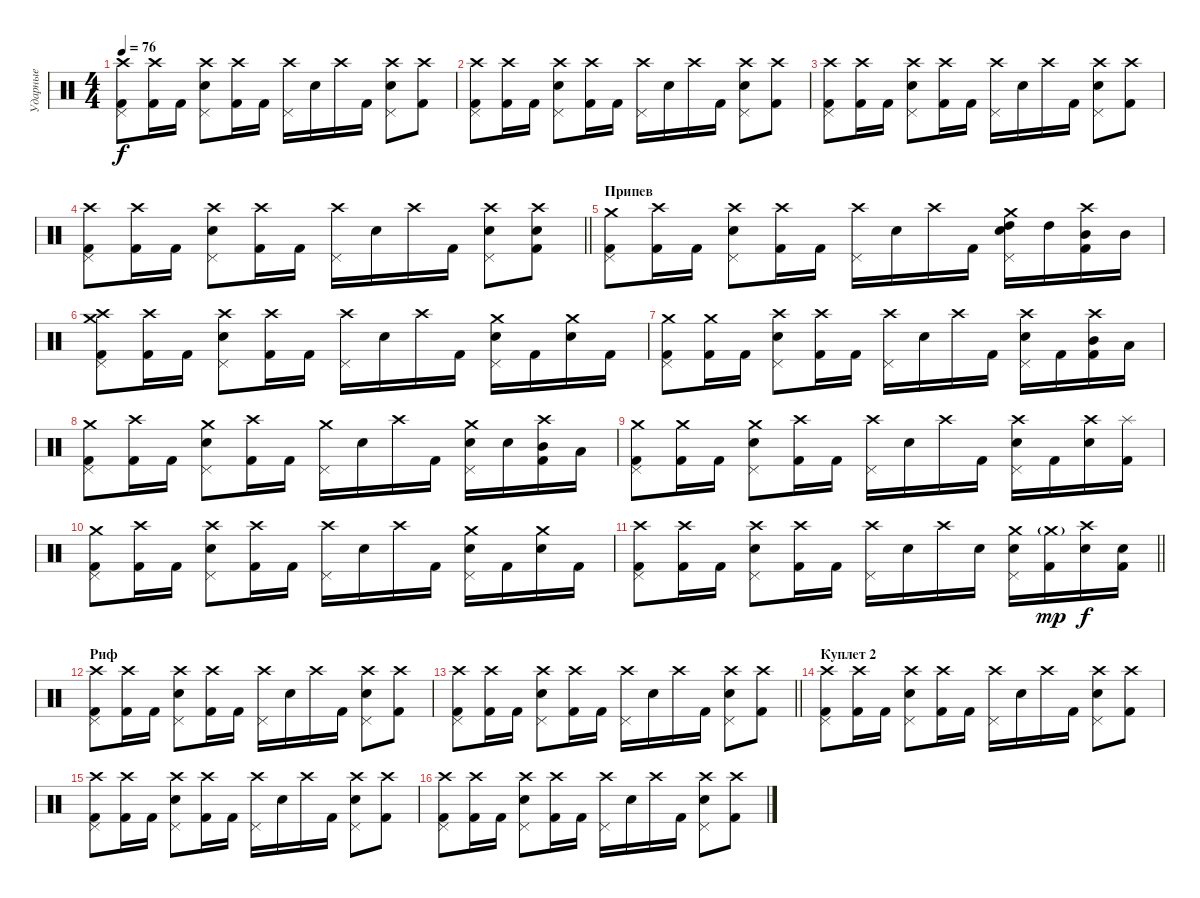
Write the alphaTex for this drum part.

\track ("Ударные" "Ударные") {instrument percussion}
\staff {score}
\articulation defaults
\ts (4 4)
\tempo 76
\clef neutral
\ks c
("Crash high (hit)" "Pedal Hi-Hat (hit)" "Kick (hit) 2").8{dy f} ("Crash high (hit)" "Kick (hit) 2").16 "Kick (hit) 2".16 ("Crash high (hit)" "Pedal Hi-Hat (hit)" "Snare (hit) 2").8 ("Crash high (hit)" "Kick (hit) 2").16 "Kick (hit) 2".16 ("Crash high (hit)" "Pedal Hi-Hat (hit)").16 "Snare (hit) 2".16 "Crash high (hit)".16 "Kick (hit) 2".16 ("Crash high (hit)" "Pedal Hi-Hat (hit)" "Snare (hit) 2").8 ("Crash high (hit)" "Kick (hit) 2").8 |
("Crash high (hit)" "Pedal Hi-Hat (hit)" "Kick (hit) 2").8 ("Crash high (hit)" "Kick (hit) 2").16 "Kick (hit) 2".16 ("Crash high (hit)" "Pedal Hi-Hat (hit)" "Snare (hit) 2").8 ("Crash high (hit)" "Kick (hit) 2").16 "Kick (hit) 2".16 ("Crash high (hit)" "Pedal Hi-Hat (hit)").16 "Snare (hit) 2".16 "Crash high (hit)".16 "Kick (hit) 2".16 ("Crash high (hit)" "Pedal Hi-Hat (hit)" "Snare (hit) 2").8 ("Crash high (hit)" "Kick (hit) 2").8 |
("Crash high (hit)" "Pedal Hi-Hat (hit)" "Kick (hit) 2").8 ("Crash high (hit)" "Kick (hit) 2").16 "Kick (hit) 2".16 ("Crash high (hit)" "Pedal Hi-Hat (hit)" "Snare (hit) 2").8 ("Crash high (hit)" "Kick (hit) 2").16 "Kick (hit) 2".16 ("Crash high (hit)" "Pedal Hi-Hat (hit)").16 "Snare (hit) 2".16 "Crash high (hit)".16 "Kick (hit) 2".16 ("Crash high (hit)" "Pedal Hi-Hat (hit)" "Snare (hit) 2").8 ("Crash high (hit)" "Kick (hit) 2").8 |
\barLineRight lightlight
("Crash high (hit)" "Pedal Hi-Hat (hit)" "Kick (hit) 2").8 ("Crash high (hit)" "Kick (hit) 2").16 "Kick (hit) 2".16 ("Crash high (hit)" "Pedal Hi-Hat (hit)" "Snare (hit) 2").8 ("Crash high (hit)" "Kick (hit) 2").16 "Kick (hit) 2".16 ("Crash high (hit)" "Pedal Hi-Hat (hit)").16 "Snare (hit) 2".16 "Crash high (hit)".16 "Kick (hit) 2".16 ("Crash high (hit)" "Pedal Hi-Hat (hit)" "Snare (hit) 2").8 ("Crash high (hit)" "Snare (hit) 2" "Kick (hit) 2").8 |
\section ("" "Припев")
("Crash medium (hit)" "Pedal Hi-Hat (hit)" "Kick (hit) 2").8 ("Crash high (hit)" "Kick (hit) 2").16 "Kick (hit) 2".16 ("Crash high (hit)" "Pedal Hi-Hat (hit)" "Snare (hit) 2").8 ("Crash high (hit)" "Kick (hit) 2").16 "Kick (hit) 2".16 ("Crash high (hit)" "Pedal Hi-Hat (hit)").16 "Snare (hit) 2".16 "Crash high (hit)".16 "Kick (hit) 2".16 ("High Tom (hit)" "Pedal Hi-Hat (hit)" "Crash medium (hit)" "Snare (hit) 2").16 "High Tom (hit)".16 ("Mid Tom (hit)" "Crash high (hit)" "Kick (hit) 2").16 "Mid Tom (hit)".16 |
("Crash high (hit)" "Pedal Hi-Hat (hit)" "Crash medium (hit)" "Kick (hit) 2").8 ("Crash high (hit)" "Kick (hit) 2").16 "Kick (hit) 2".16 ("Crash high (hit)" "Pedal Hi-Hat (hit)" "Snare (hit) 2").8 ("Crash high (hit)" "Kick (hit) 2").16 "Kick (hit) 2".16 ("Crash high (hit)" "Pedal Hi-Hat (hit)").16 "Snare (hit) 2".16 "Crash high (hit)".16 "Kick (hit) 2".16 ("Crash medium (hit)" "Pedal Hi-Hat (hit)" "Snare (hit) 2").16 "Kick (hit) 2".16 ("Crash medium (hit)" "Snare (hit) 2").16 "Kick (hit) 2".16 |
("Crash medium (hit)" "Pedal Hi-Hat (hit)" "Kick (hit) 2").8 ("Crash medium (hit)" "Kick (hit) 2").16 "Kick (hit) 2".16 ("Crash high (hit)" "Pedal Hi-Hat (hit)" "Snare (hit) 2").8 ("Crash high (hit)" "Kick (hit) 2").16 "Kick (hit) 2".16 ("Crash high (hit)" "Pedal Hi-Hat (hit)").16 "Snare (hit) 2".16 "Crash high (hit)".16 "Kick (hit) 2".16 ("Crash high (hit)" "Pedal Hi-Hat (hit)" "Snare (hit) 2").16 "Kick (hit) 2".16 ("Mid Tom (hit)" "Crash high (hit)" "Kick (hit) 2").16 "Low Tom (hit)".16 |
("Crash medium (hit)" "Pedal Hi-Hat (hit)" "Kick (hit) 2").8 ("Crash high (hit)" "Kick (hit) 2").16 "Kick (hit) 2".16 ("Crash medium (hit)" "Pedal Hi-Hat (hit)" "Snare (hit) 2").8 ("Crash high (hit)" "Kick (hit) 2").16 "Kick (hit) 2".16 ("Crash medium (hit)" "Pedal Hi-Hat (hit)").16 "Snare (hit) 2".16 "Crash high (hit)".16 "Kick (hit) 2".16 ("Crash medium (hit)" "Pedal Hi-Hat (hit)" "Snare (hit) 2").16 "Snare (hit) 2".16 ("Mid Tom (hit)" "Crash high (hit)" "Kick (hit) 2").16 "Low Tom (hit)".16 |
("Crash medium (hit)" "Pedal Hi-Hat (hit)" "Kick (hit) 2").8 ("Crash medium (hit)" "Kick (hit) 2").16 "Kick (hit) 2".16 ("Crash medium (hit)" "Pedal Hi-Hat (hit)" "Snare (hit) 2").8 ("Crash high (hit)" "Kick (hit) 2").16 "Kick (hit) 2".16 ("Crash high (hit)" "Pedal Hi-Hat (hit)").16 "Snare (hit) 2".16 "Crash high (hit)".16 "Kick (hit) 2".16 ("Crash high (hit)" "Pedal Hi-Hat (hit)" "Snare (hit) 2").16 "Kick (hit) 2".16 ("Crash high (hit)" "Snare (hit) 2").16 ("Splash (hit)" "Kick (hit) 2").16 |
("Crash medium (hit)" "Pedal Hi-Hat (hit)" "Kick (hit) 2").8 ("Crash high (hit)" "Kick (hit) 2").16 "Kick (hit) 2".16 ("Crash high (hit)" "Pedal Hi-Hat (hit)" "Snare (hit) 2").8 ("Crash high (hit)" "Kick (hit) 2").16 "Kick (hit) 2".16 ("Crash high (hit)" "Pedal Hi-Hat (hit)").16 "Snare (hit) 2".16 "Crash high (hit)".16 "Kick (hit) 2".16 ("Crash medium (hit)" "Pedal Hi-Hat (hit)" "Snare (hit) 2").16 "Kick (hit) 2".16 ("Crash medium (hit)" "Snare (hit) 2").16 "Kick (hit) 2".16 |
\barLineRight lightlight
("Crash high (hit)" "Pedal Hi-Hat (hit)" "Kick (hit) 2").8 ("Crash high (hit)" "Kick (hit) 2").16 "Kick (hit) 2".16 ("Crash high (hit)" "Pedal Hi-Hat (hit)" "Snare (hit) 2").8 ("Crash high (hit)" "Kick (hit) 2").16 "Kick (hit) 2".16 ("Crash high (hit)" "Pedal Hi-Hat (hit)").16 "Snare (hit) 2".16 "Crash high (hit)".16 "Snare (hit) 2".16 ("Crash medium (hit)" "Pedal Hi-Hat (hit)" "Snare (hit) 2").16 ("Crash medium (hit)"{g} "Kick (hit) 2").16{dy mp} ("Crash high (hit)" "Snare (hit) 2").16{dy f} ("Snare (hit) 2" "Kick (hit) 2").16 |
\section ("" "Риф")
("Crash high (hit)" "Pedal Hi-Hat (hit)" "Kick (hit) 2").8 ("Crash high (hit)" "Kick (hit) 2").16 "Kick (hit) 2".16 ("Crash high (hit)" "Pedal Hi-Hat (hit)" "Snare (hit) 2").8 ("Crash high (hit)" "Kick (hit) 2").16 "Kick (hit) 2".16 ("Crash high (hit)" "Pedal Hi-Hat (hit)").16 "Snare (hit) 2".16 "Crash high (hit)".16 "Kick (hit) 2".16 ("Crash high (hit)" "Pedal Hi-Hat (hit)" "Snare (hit) 2").8 ("Crash high (hit)" "Kick (hit) 2").8 |
\barLineRight lightlight
("Crash high (hit)" "Pedal Hi-Hat (hit)" "Kick (hit) 2").8 ("Crash high (hit)" "Kick (hit) 2").16 "Kick (hit) 2".16 ("Crash high (hit)" "Pedal Hi-Hat (hit)" "Snare (hit) 2").8 ("Crash high (hit)" "Kick (hit) 2").16 "Kick (hit) 2".16 ("Crash high (hit)" "Pedal Hi-Hat (hit)").16 "Snare (hit) 2".16 "Crash high (hit)".16 "Kick (hit) 2".16 ("Crash high (hit)" "Pedal Hi-Hat (hit)" "Snare (hit) 2").8 ("Crash high (hit)" "Kick (hit) 2").8 |
\section ("" "Куплет 2")
("Crash high (hit)" "Pedal Hi-Hat (hit)" "Kick (hit) 2").8 ("Crash high (hit)" "Kick (hit) 2").16 "Kick (hit) 2".16 ("Crash high (hit)" "Pedal Hi-Hat (hit)" "Snare (hit) 2").8 ("Crash high (hit)" "Kick (hit) 2").16 "Kick (hit) 2".16 ("Crash high (hit)" "Pedal Hi-Hat (hit)").16 "Snare (hit) 2".16 "Crash high (hit)".16 "Kick (hit) 2".16 ("Crash high (hit)" "Pedal Hi-Hat (hit)" "Snare (hit) 2").8 ("Crash high (hit)" "Kick (hit) 2").8 |
("Crash high (hit)" "Pedal Hi-Hat (hit)" "Kick (hit) 2").8 ("Crash high (hit)" "Kick (hit) 2").16 "Kick (hit) 2".16 ("Crash high (hit)" "Pedal Hi-Hat (hit)" "Snare (hit) 2").8 ("Crash high (hit)" "Kick (hit) 2").16 "Kick (hit) 2".16 ("Crash high (hit)" "Pedal Hi-Hat (hit)").16 "Snare (hit) 2".16 "Crash high (hit)".16 "Kick (hit) 2".16 ("Crash high (hit)" "Pedal Hi-Hat (hit)" "Snare (hit) 2").8 ("Crash high (hit)" "Kick (hit) 2").8 |
("Crash high (hit)" "Pedal Hi-Hat (hit)" "Kick (hit) 2").8 ("Crash high (hit)" "Kick (hit) 2").16 "Kick (hit) 2".16 ("Crash high (hit)" "Pedal Hi-Hat (hit)" "Snare (hit) 2").8 ("Crash high (hit)" "Kick (hit) 2").16 "Kick (hit) 2".16 ("Crash high (hit)" "Pedal Hi-Hat (hit)").16 "Snare (hit) 2".16 "Crash high (hit)".16 "Kick (hit) 2".16 ("Crash high (hit)" "Pedal Hi-Hat (hit)" "Snare (hit) 2").8 ("Crash high (hit)" "Kick (hit) 2").8
